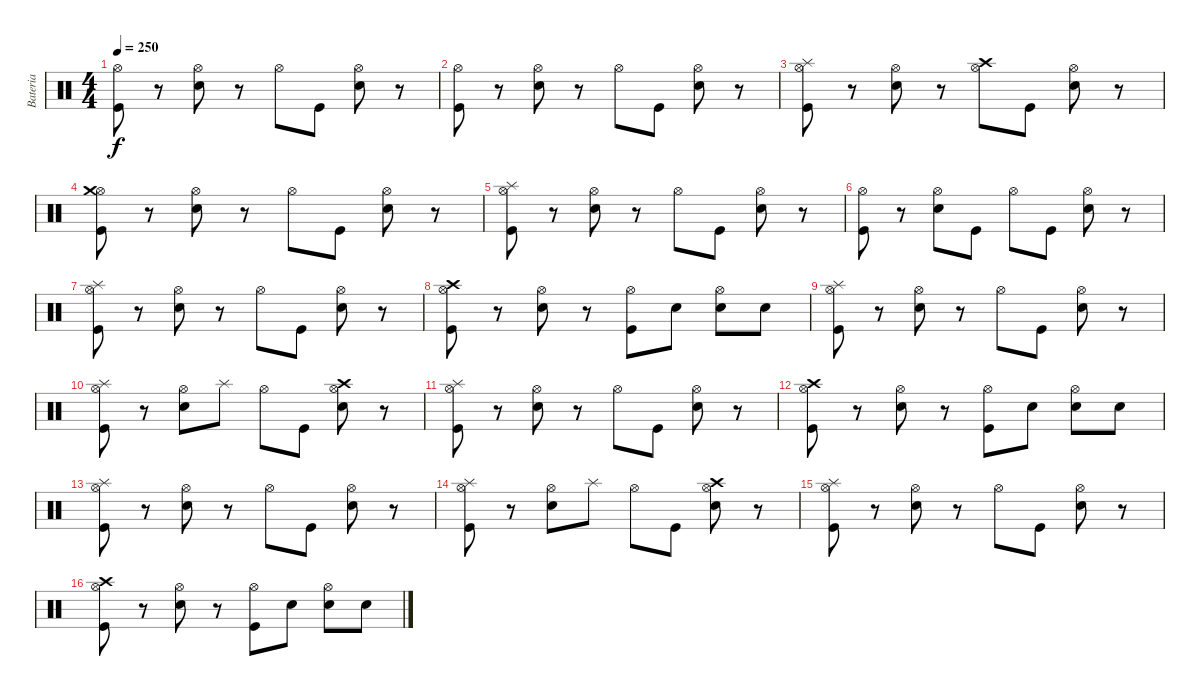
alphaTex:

\track ("Bateria" "Bateria") {instrument percussion}
\staff {score}
\articulation defaults
\ts (4 4)
\tempo 250
\clef neutral
\ks c
("Kick (hit)" "Hi-Hat (open)").8{dy f} r.8 ("Electric Snare (hit)" "Hi-Hat (open)").8 r.8 "Hi-Hat (open)".8 "Kick (hit)".8 ("Electric Snare (hit)" "Hi-Hat (open)").8 r.8 |
("Kick (hit)" "Hi-Hat (open)").8 r.8 ("Electric Snare (hit)" "Hi-Hat (open)").8 r.8 "Hi-Hat (open)".8 "Kick (hit)".8 ("Electric Snare (hit)" "Hi-Hat (open)").8 r.8 |
("Kick (hit)" "Hi-Hat (open)" "Splash (hit)").8 r.8 ("Electric Snare (hit)" "Hi-Hat (open)").8 r.8 ("Hi-Hat (open)" "Crash high (hit)").8 "Kick (hit)".8 ("Electric Snare (hit)" "Hi-Hat (open)").8 r.8 |
("Kick (hit)" "Hi-Hat (open)" "Crash medium (hit)").8 r.8 ("Electric Snare (hit)" "Hi-Hat (open)").8 r.8 "Hi-Hat (open)".8 "Kick (hit)".8 ("Electric Snare (hit)" "Hi-Hat (open)").8 r.8 |
("Kick (hit)" "Hi-Hat (open)" "Splash (hit)").8 r.8 ("Electric Snare (hit)" "Hi-Hat (open)").8 r.8 "Hi-Hat (open)".8 "Kick (hit)".8 ("Electric Snare (hit)" "Hi-Hat (open)").8 r.8 |
("Kick (hit)" "Hi-Hat (open)").8 r.8 ("Electric Snare (hit)" "Hi-Hat (open)").8 "Kick (hit)".8 "Hi-Hat (open)".8 "Kick (hit)".8 ("Electric Snare (hit)" "Hi-Hat (open)").8 r.8 |
("Kick (hit)" "Hi-Hat (open)" "Splash (hit)").8 r.8 ("Electric Snare (hit)" "Hi-Hat (open)").8 r.8 "Hi-Hat (open)".8 "Kick (hit)".8 ("Electric Snare (hit)" "Hi-Hat (open)").8 r.8 |
("Kick (hit)" "Hi-Hat (open)" "Crash high (hit)").8 r.8 ("Electric Snare (hit)" "Hi-Hat (open)").8 r.8 ("Kick (hit)" "Hi-Hat (open)").8 "Electric Snare (hit)".8 ("Electric Snare (hit)" "Hi-Hat (open)").8 "Electric Snare (hit)".8 |
("Kick (hit)" "Hi-Hat (open)" "Splash (hit)").8 r.8 ("Electric Snare (hit)" "Hi-Hat (open)").8 r.8 "Hi-Hat (open)".8 "Kick (hit)".8 ("Electric Snare (hit)" "Hi-Hat (open)").8 r.8 |
("Kick (hit)" "Hi-Hat (open)" "Splash (hit)").8 r.8 ("Electric Snare (hit)" "Hi-Hat (open)").8 "Splash (hit)".8 "Hi-Hat (open)".8 "Kick (hit)".8 ("Electric Snare (hit)" "Hi-Hat (open)" "Crash high (hit)").8 r.8 |
("Kick (hit)" "Hi-Hat (open)" "Splash (hit)").8 r.8 ("Electric Snare (hit)" "Hi-Hat (open)").8 r.8 "Hi-Hat (open)".8 "Kick (hit)".8 ("Electric Snare (hit)" "Hi-Hat (open)").8 r.8 |
("Kick (hit)" "Hi-Hat (open)" "Crash high (hit)").8 r.8 ("Electric Snare (hit)" "Hi-Hat (open)").8 r.8 ("Kick (hit)" "Hi-Hat (open)").8 "Electric Snare (hit)".8 ("Electric Snare (hit)" "Hi-Hat (open)").8 "Electric Snare (hit)".8 |
("Kick (hit)" "Hi-Hat (open)" "Splash (hit)").8 r.8 ("Electric Snare (hit)" "Hi-Hat (open)").8 r.8 "Hi-Hat (open)".8 "Kick (hit)".8 ("Electric Snare (hit)" "Hi-Hat (open)").8 r.8 |
("Kick (hit)" "Hi-Hat (open)" "Splash (hit)").8 r.8 ("Electric Snare (hit)" "Hi-Hat (open)").8 "Splash (hit)".8 "Hi-Hat (open)".8 "Kick (hit)".8 ("Electric Snare (hit)" "Hi-Hat (open)" "Crash high (hit)").8 r.8 |
("Kick (hit)" "Hi-Hat (open)" "Splash (hit)").8 r.8 ("Electric Snare (hit)" "Hi-Hat (open)").8 r.8 "Hi-Hat (open)".8 "Kick (hit)".8 ("Electric Snare (hit)" "Hi-Hat (open)").8 r.8 |
("Kick (hit)" "Hi-Hat (open)" "Crash high (hit)").8 r.8 ("Electric Snare (hit)" "Hi-Hat (open)").8 r.8 ("Kick (hit)" "Hi-Hat (open)").8 "Electric Snare (hit)".8 ("Electric Snare (hit)" "Hi-Hat (open)").8 "Electric Snare (hit)".8
